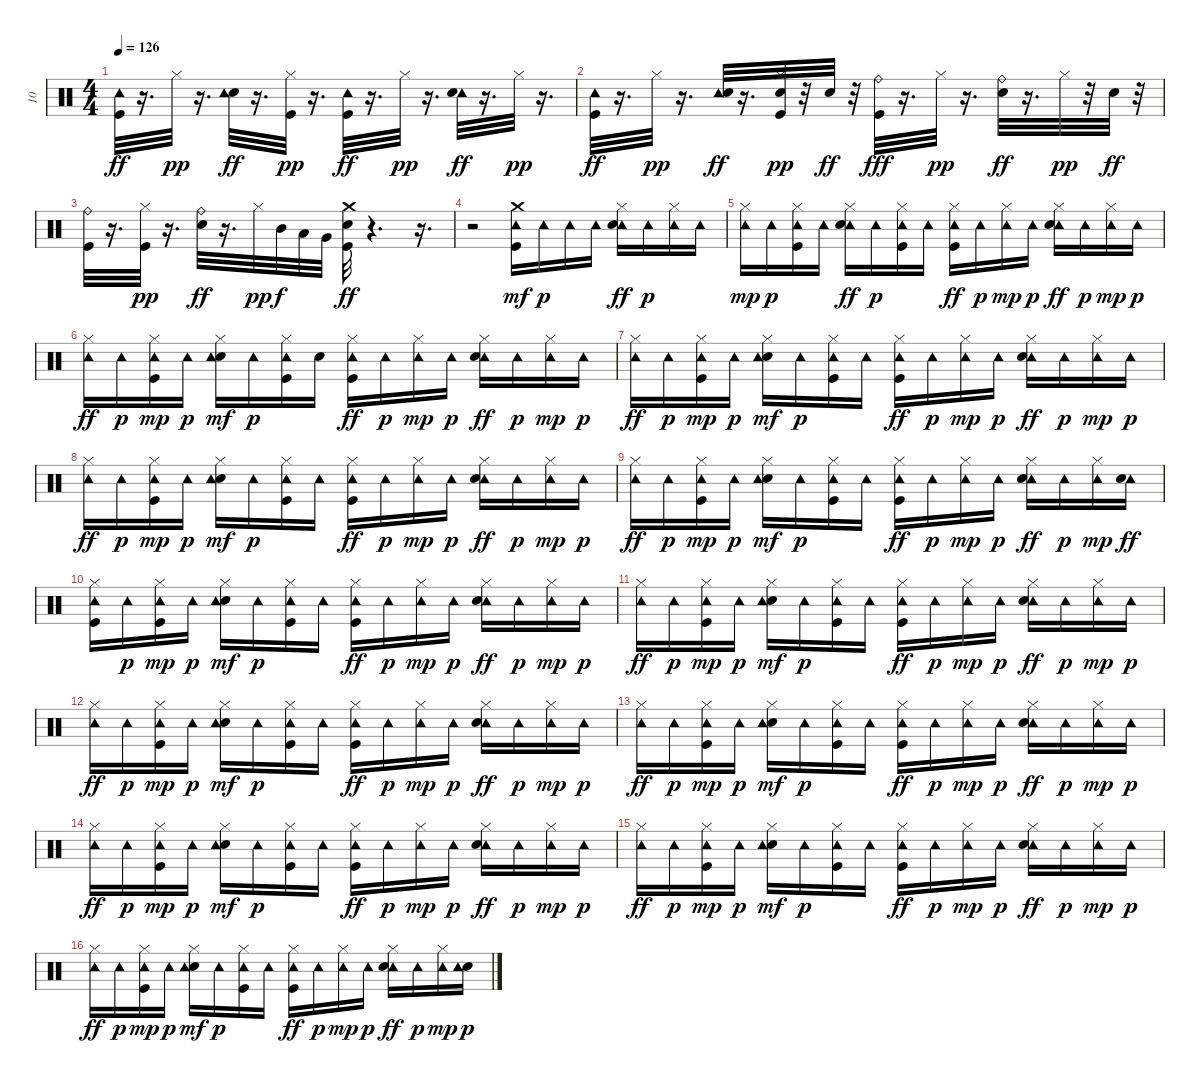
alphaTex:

\track ("10" "10") {instrument percussion}
\staff {score}
\articulation defaults
\ts (4 4)
\tempo 126
\clef neutral
\ks c
("Kick (hit)" "Tambourine (hit)").32{dy ff} r.16{d} "Hi-Hat (closed)".32{dy pp} r.16{d} ("Electric Snare (hit)" "Tambourine (hit)").32{dy ff} r.16{d} ("Kick (hit)" "Hi-Hat (closed)").32{dy pp} r.16{d} ("Tambourine (hit)" "Kick (hit)").32{dy ff} r.16{d} "Hi-Hat (closed)".32{dy pp} r.16{d} ("Tambourine (hit)" "Electric Snare (hit)").32{dy ff} r.16{d} "Hi-Hat (closed)".32{dy pp} r.16{d} |
("Kick (hit)" "Tambourine (hit)").32{dy ff} r.16{d} "Hi-Hat (closed)".32{dy pp} r.16{d} ("Tambourine (hit)" "Electric Snare (hit)").32{dy ff} r.16{d} ("Electric Snare (hit)" "Kick (hit)" "Hi-Hat (closed)").32{dy pp} r.32 "Electric Snare (hit)".32{dy ff} r.32 ("Kick (hit)" "Ride (bell)").32{dy fff} r.16{d} "Hi-Hat (closed)".32{dy pp} r.16{d} ("Electric Snare (hit)" "Ride (bell)").32{dy ff} r.16{d} "Hi-Hat (closed)".32{dy pp} r.32 "Electric Snare (hit)".32{dy ff} r.32 |
("Ride (bell)" "Kick (hit)").32 r.16{d} ("Hi-Hat (closed)" "Kick (hit)").32{dy pp} r.16{d} ("Electric Snare (hit)" "Ride (bell)").32{dy ff} r.16{d} "Hi-Hat (closed)".32{dy pp} "Mid Tom (hit)".32{dy f} "Low Tom (hit)".32 "Very Low Tom (hit)".32 ("Crash medium (hit)" "Kick (hit)" "Electric Snare (hit)").32{dy ff} r.4{d} r.16{d} |
r.2 ("Tambourine (hit)" "Crash medium (hit)" "Kick (hit)").16{dy mf} "Tambourine (hit)".16{dy p} "Tambourine (hit)".16 "Tambourine (hit)".16 ("Tambourine (hit)" "Hi-Hat (closed)" "Electric Snare (hit)").16{dy ff} "Tambourine (hit)".16{dy p} ("Tambourine (hit)" "Hi-Hat (closed)").16 "Tambourine (hit)".16 |
("Tambourine (hit)" "Hi-Hat (closed)").16{dy mp} "Tambourine (hit)".16{dy p} ("Hi-Hat (closed)" "Tambourine (hit)" "Kick (hit)").16 "Tambourine (hit)".16 ("Tambourine (hit)" "Hi-Hat (closed)" "Electric Snare (hit)").16{dy ff} "Tambourine (hit)".16{dy p} ("Kick (hit)" "Tambourine (hit)" "Hi-Hat (closed)").16 "Tambourine (hit)".16 ("Tambourine (hit)" "Kick (hit)" "Hi-Hat (closed)").16{dy ff} "Tambourine (hit)".16{dy p} ("Tambourine (hit)" "Hi-Hat (closed)").16{dy mp} "Tambourine (hit)".16{dy p} ("Tambourine (hit)" "Hi-Hat (closed)" "Electric Snare (hit)").16{dy ff} "Tambourine (hit)".16{dy p} ("Tambourine (hit)" "Hi-Hat (closed)").16{dy mp} "Tambourine (hit)".16{dy p} |
("Tambourine (hit)" "Hi-Hat (closed)").16{dy ff} "Tambourine (hit)".16{dy p} ("Tambourine (hit)" "Kick (hit)" "Hi-Hat (closed)").16{dy mp} "Tambourine (hit)".16{dy p} ("Electric Snare (hit)" "Tambourine (hit)" "Hi-Hat (closed)").16{dy mf} "Tambourine (hit)".16{dy p} ("Kick (hit)" "Tambourine (hit)" "Hi-Hat (closed)").16 "Snare (hit)".16 ("Tambourine (hit)" "Kick (hit)" "Hi-Hat (closed)").16{dy ff} "Tambourine (hit)".16{dy p} ("Tambourine (hit)" "Hi-Hat (closed)").16{dy mp} "Tambourine (hit)".16{dy p} ("Tambourine (hit)" "Hi-Hat (closed)" "Electric Snare (hit)").16{dy ff} "Tambourine (hit)".16{dy p} ("Tambourine (hit)" "Hi-Hat (closed)").16{dy mp} "Tambourine (hit)".16{dy p} |
("Tambourine (hit)" "Hi-Hat (closed)").16{dy ff} "Tambourine (hit)".16{dy p} ("Tambourine (hit)" "Kick (hit)" "Hi-Hat (closed)").16{dy mp} "Tambourine (hit)".16{dy p} ("Electric Snare (hit)" "Tambourine (hit)" "Hi-Hat (closed)").16{dy mf} "Tambourine (hit)".16{dy p} ("Kick (hit)" "Tambourine (hit)" "Hi-Hat (closed)").16 "Tambourine (hit)".16 ("Tambourine (hit)" "Kick (hit)" "Hi-Hat (closed)").16{dy ff} "Tambourine (hit)".16{dy p} ("Tambourine (hit)" "Hi-Hat (closed)").16{dy mp} "Tambourine (hit)".16{dy p} ("Tambourine (hit)" "Hi-Hat (closed)" "Electric Snare (hit)").16{dy ff} "Tambourine (hit)".16{dy p} ("Tambourine (hit)" "Hi-Hat (closed)").16{dy mp} "Tambourine (hit)".16{dy p} |
("Tambourine (hit)" "Hi-Hat (closed)").16{dy ff} "Tambourine (hit)".16{dy p} ("Tambourine (hit)" "Kick (hit)" "Hi-Hat (closed)").16{dy mp} "Tambourine (hit)".16{dy p} ("Electric Snare (hit)" "Tambourine (hit)" "Hi-Hat (closed)").16{dy mf} "Tambourine (hit)".16{dy p} ("Kick (hit)" "Tambourine (hit)" "Hi-Hat (closed)").16 "Tambourine (hit)".16 ("Tambourine (hit)" "Kick (hit)" "Hi-Hat (closed)").16{dy ff} "Tambourine (hit)".16{dy p} ("Tambourine (hit)" "Hi-Hat (closed)").16{dy mp} "Tambourine (hit)".16{dy p} ("Tambourine (hit)" "Hi-Hat (closed)" "Electric Snare (hit)").16{dy ff} "Tambourine (hit)".16{dy p} ("Tambourine (hit)" "Hi-Hat (closed)").16{dy mp} "Tambourine (hit)".16{dy p} |
("Tambourine (hit)" "Hi-Hat (closed)").16{dy ff} "Tambourine (hit)".16{dy p} ("Tambourine (hit)" "Kick (hit)" "Hi-Hat (closed)").16{dy mp} "Tambourine (hit)".16{dy p} ("Electric Snare (hit)" "Tambourine (hit)" "Hi-Hat (closed)").16{dy mf} "Tambourine (hit)".16{dy p} ("Kick (hit)" "Tambourine (hit)" "Hi-Hat (closed)").16 "Tambourine (hit)".16 ("Tambourine (hit)" "Kick (hit)" "Hi-Hat (closed)").16{dy ff} "Tambourine (hit)".16{dy p} ("Tambourine (hit)" "Hi-Hat (closed)").16{dy mp} "Tambourine (hit)".16{dy p} ("Tambourine (hit)" "Hi-Hat (closed)" "Electric Snare (hit)").16{dy ff} "Tambourine (hit)".16{dy p} ("Tambourine (hit)" "Hi-Hat (closed)").16{dy mp} ("Tambourine (hit)" "Electric Snare (hit)").16{dy ff} |
("Tambourine (hit)" "Hi-Hat (closed)" "Kick (hit)").16 "Tambourine (hit)".16{dy p} ("Tambourine (hit)" "Kick (hit)" "Hi-Hat (closed)").16{dy mp} "Tambourine (hit)".16{dy p} ("Electric Snare (hit)" "Tambourine (hit)" "Hi-Hat (closed)").16{dy mf} "Tambourine (hit)".16{dy p} ("Kick (hit)" "Tambourine (hit)" "Hi-Hat (closed)").16 "Tambourine (hit)".16 ("Tambourine (hit)" "Kick (hit)" "Hi-Hat (closed)").16{dy ff} "Tambourine (hit)".16{dy p} ("Tambourine (hit)" "Hi-Hat (closed)").16{dy mp} "Tambourine (hit)".16{dy p} ("Tambourine (hit)" "Hi-Hat (closed)" "Electric Snare (hit)").16{dy ff} "Tambourine (hit)".16{dy p} ("Tambourine (hit)" "Hi-Hat (closed)").16{dy mp} "Tambourine (hit)".16{dy p} |
("Tambourine (hit)" "Hi-Hat (closed)").16{dy ff} "Tambourine (hit)".16{dy p} ("Tambourine (hit)" "Kick (hit)" "Hi-Hat (closed)").16{dy mp} "Tambourine (hit)".16{dy p} ("Electric Snare (hit)" "Tambourine (hit)" "Hi-Hat (closed)").16{dy mf} "Tambourine (hit)".16{dy p} ("Kick (hit)" "Tambourine (hit)" "Hi-Hat (closed)").16 "Tambourine (hit)".16 ("Tambourine (hit)" "Kick (hit)" "Hi-Hat (closed)").16{dy ff} "Tambourine (hit)".16{dy p} ("Tambourine (hit)" "Hi-Hat (closed)").16{dy mp} "Tambourine (hit)".16{dy p} ("Tambourine (hit)" "Hi-Hat (closed)" "Electric Snare (hit)").16{dy ff} "Tambourine (hit)".16{dy p} ("Tambourine (hit)" "Hi-Hat (closed)").16{dy mp} "Tambourine (hit)".16{dy p} |
("Tambourine (hit)" "Hi-Hat (closed)").16{dy ff} "Tambourine (hit)".16{dy p} ("Tambourine (hit)" "Kick (hit)" "Hi-Hat (closed)").16{dy mp} "Tambourine (hit)".16{dy p} ("Electric Snare (hit)" "Tambourine (hit)" "Hi-Hat (closed)").16{dy mf} "Tambourine (hit)".16{dy p} ("Kick (hit)" "Tambourine (hit)" "Hi-Hat (closed)").16 "Tambourine (hit)".16 ("Tambourine (hit)" "Kick (hit)" "Hi-Hat (closed)").16{dy ff} "Tambourine (hit)".16{dy p} ("Tambourine (hit)" "Hi-Hat (closed)").16{dy mp} "Tambourine (hit)".16{dy p} ("Tambourine (hit)" "Hi-Hat (closed)" "Electric Snare (hit)").16{dy ff} "Tambourine (hit)".16{dy p} ("Tambourine (hit)" "Hi-Hat (closed)").16{dy mp} "Tambourine (hit)".16{dy p} |
("Tambourine (hit)" "Hi-Hat (closed)").16{dy ff} "Tambourine (hit)".16{dy p} ("Tambourine (hit)" "Kick (hit)" "Hi-Hat (closed)").16{dy mp} "Tambourine (hit)".16{dy p} ("Electric Snare (hit)" "Tambourine (hit)" "Hi-Hat (closed)").16{dy mf} "Tambourine (hit)".16{dy p} ("Kick (hit)" "Tambourine (hit)" "Hi-Hat (closed)").16 "Tambourine (hit)".16 ("Tambourine (hit)" "Kick (hit)" "Hi-Hat (closed)").16{dy ff} "Tambourine (hit)".16{dy p} ("Tambourine (hit)" "Hi-Hat (closed)").16{dy mp} "Tambourine (hit)".16{dy p} ("Tambourine (hit)" "Hi-Hat (closed)" "Electric Snare (hit)").16{dy ff} "Tambourine (hit)".16{dy p} ("Tambourine (hit)" "Hi-Hat (closed)").16{dy mp} "Tambourine (hit)".16{dy p} |
("Tambourine (hit)" "Hi-Hat (closed)").16{dy ff} "Tambourine (hit)".16{dy p} ("Tambourine (hit)" "Kick (hit)" "Hi-Hat (closed)").16{dy mp} "Tambourine (hit)".16{dy p} ("Electric Snare (hit)" "Tambourine (hit)" "Hi-Hat (closed)").16{dy mf} "Tambourine (hit)".16{dy p} ("Kick (hit)" "Tambourine (hit)" "Hi-Hat (closed)").16 "Tambourine (hit)".16 ("Tambourine (hit)" "Kick (hit)" "Hi-Hat (closed)").16{dy ff} "Tambourine (hit)".16{dy p} ("Tambourine (hit)" "Hi-Hat (closed)").16{dy mp} "Tambourine (hit)".16{dy p} ("Tambourine (hit)" "Hi-Hat (closed)" "Electric Snare (hit)").16{dy ff} "Tambourine (hit)".16{dy p} ("Tambourine (hit)" "Hi-Hat (closed)").16{dy mp} "Tambourine (hit)".16{dy p} |
("Tambourine (hit)" "Hi-Hat (closed)").16{dy ff} "Tambourine (hit)".16{dy p} ("Tambourine (hit)" "Kick (hit)" "Hi-Hat (closed)").16{dy mp} "Tambourine (hit)".16{dy p} ("Electric Snare (hit)" "Tambourine (hit)" "Hi-Hat (closed)").16{dy mf} "Tambourine (hit)".16{dy p} ("Kick (hit)" "Tambourine (hit)" "Hi-Hat (closed)").16 "Tambourine (hit)".16 ("Tambourine (hit)" "Kick (hit)" "Hi-Hat (closed)").16{dy ff} "Tambourine (hit)".16{dy p} ("Tambourine (hit)" "Hi-Hat (closed)").16{dy mp} "Tambourine (hit)".16{dy p} ("Tambourine (hit)" "Hi-Hat (closed)" "Electric Snare (hit)").16{dy ff} "Tambourine (hit)".16{dy p} ("Tambourine (hit)" "Hi-Hat (closed)").16{dy mp} "Tambourine (hit)".16{dy p} |
("Tambourine (hit)" "Hi-Hat (closed)").16{dy ff} "Tambourine (hit)".16{dy p} ("Tambourine (hit)" "Kick (hit)" "Hi-Hat (closed)").16{dy mp} "Tambourine (hit)".16{dy p} ("Electric Snare (hit)" "Tambourine (hit)" "Hi-Hat (closed)").16{dy mf} "Tambourine (hit)".16{dy p} ("Kick (hit)" "Tambourine (hit)" "Hi-Hat (closed)").16 "Tambourine (hit)".16 ("Tambourine (hit)" "Kick (hit)" "Hi-Hat (closed)").16{dy ff} "Tambourine (hit)".16{dy p} ("Tambourine (hit)" "Hi-Hat (closed)").16{dy mp} "Tambourine (hit)".16{dy p} ("Tambourine (hit)" "Hi-Hat (closed)" "Electric Snare (hit)").16{dy ff} "Tambourine (hit)".16{dy p} ("Tambourine (hit)" "Hi-Hat (closed)").16{dy mp} ("Electric Snare (hit)" "Tambourine (hit)").16{dy p}
